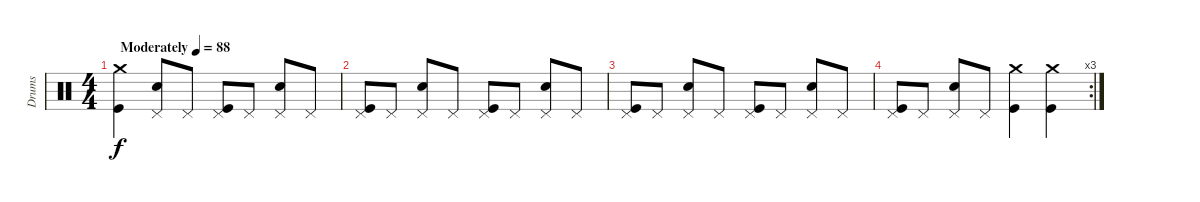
\track ("Drums" "Drums") {instrument percussion}
\staff {score}
\articulation defaults
\ts (4 4)
\tempo (88 "Moderately")
\clef neutral
\ks c
("Crash medium (hit)" "Kick (hit)").4{dy f} ("Pedal Hi-Hat (hit)" "Snare (hit) 2").8 "Pedal Hi-Hat (hit)".8 ("Pedal Hi-Hat (hit)" "Kick (hit)").8 "Pedal Hi-Hat (hit)".8 ("Pedal Hi-Hat (hit)" "Snare (hit) 2").8 "Pedal Hi-Hat (hit)".8 |
("Pedal Hi-Hat (hit)" "Kick (hit)").8 "Pedal Hi-Hat (hit)".8 ("Pedal Hi-Hat (hit)" "Snare (hit) 2").8 "Pedal Hi-Hat (hit)".8 ("Pedal Hi-Hat (hit)" "Kick (hit)").8 "Pedal Hi-Hat (hit)".8 ("Pedal Hi-Hat (hit)" "Snare (hit) 2").8 "Pedal Hi-Hat (hit)".8 |
("Pedal Hi-Hat (hit)" "Kick (hit)").8 "Pedal Hi-Hat (hit)".8 ("Pedal Hi-Hat (hit)" "Snare (hit) 2").8 "Pedal Hi-Hat (hit)".8 ("Pedal Hi-Hat (hit)" "Kick (hit)").8 "Pedal Hi-Hat (hit)".8 ("Pedal Hi-Hat (hit)" "Snare (hit) 2").8 "Pedal Hi-Hat (hit)".8 |
\rc 3
("Pedal Hi-Hat (hit)" "Kick (hit)").8 "Pedal Hi-Hat (hit)".8 ("Pedal Hi-Hat (hit)" "Snare (hit) 2").8 "Pedal Hi-Hat (hit)".8 ("Crash medium (hit)" "Kick (hit)").4 ("Crash medium (hit)" "Kick (hit)").4
